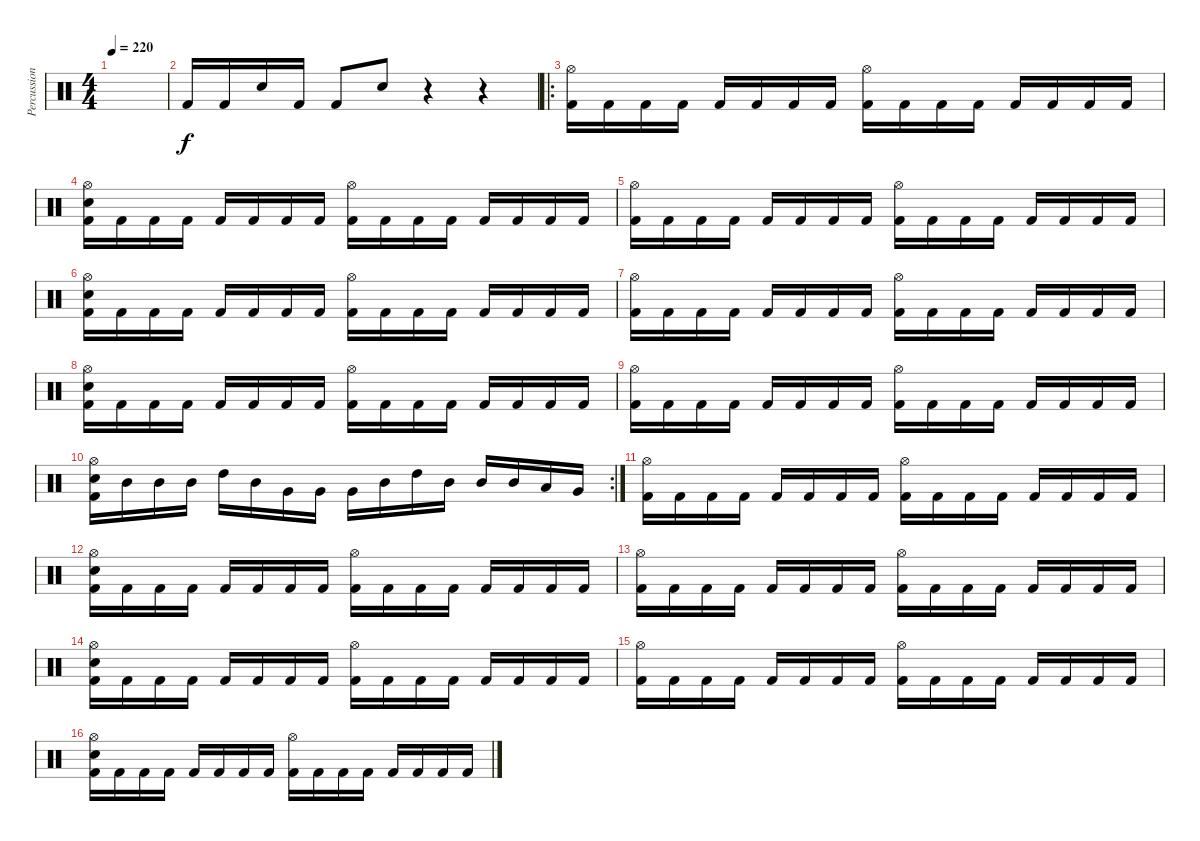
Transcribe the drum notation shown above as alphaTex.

\track ("Percussion" "Percussion") {instrument percussion}
\staff {score}
\articulation defaults
\ts (4 4)
\tempo 220
\clef neutral
\ks c
|
"Kick (hit) 2".16 "Kick (hit) 2".16 "Electric Snare (hit)".16 "Kick (hit) 2".16 "Kick (hit) 2".8 "Electric Snare (hit)".8 r.4 r.4 |
\ro
("Hi-Hat (open)" "Kick (hit) 2").16 "Kick (hit) 2".16 "Kick (hit) 2".16 "Kick (hit) 2".16 "Kick (hit) 2".16 "Kick (hit) 2".16 "Kick (hit) 2".16 "Kick (hit) 2".16 ("Hi-Hat (open)" "Kick (hit) 2").16 "Kick (hit) 2".16 "Kick (hit) 2".16 "Kick (hit) 2".16 "Kick (hit) 2".16 "Kick (hit) 2".16 "Kick (hit) 2".16 "Kick (hit) 2".16 |
("Hi-Hat (open)" "Electric Snare (hit)" "Kick (hit) 2").16 "Kick (hit) 2".16 "Kick (hit) 2".16 "Kick (hit) 2".16 "Kick (hit) 2".16 "Kick (hit) 2".16 "Kick (hit) 2".16 "Kick (hit) 2".16 ("Hi-Hat (open)" "Kick (hit) 2").16 "Kick (hit) 2".16 "Kick (hit) 2".16 "Kick (hit) 2".16 "Kick (hit) 2".16 "Kick (hit) 2".16 "Kick (hit) 2".16 "Kick (hit) 2".16 |
("Hi-Hat (open)" "Kick (hit) 2").16 "Kick (hit) 2".16 "Kick (hit) 2".16 "Kick (hit) 2".16 "Kick (hit) 2".16 "Kick (hit) 2".16 "Kick (hit) 2".16 "Kick (hit) 2".16 ("Hi-Hat (open)" "Kick (hit) 2").16 "Kick (hit) 2".16 "Kick (hit) 2".16 "Kick (hit) 2".16 "Kick (hit) 2".16 "Kick (hit) 2".16 "Kick (hit) 2".16 "Kick (hit) 2".16 |
("Hi-Hat (open)" "Electric Snare (hit)" "Kick (hit) 2").16 "Kick (hit) 2".16 "Kick (hit) 2".16 "Kick (hit) 2".16 "Kick (hit) 2".16 "Kick (hit) 2".16 "Kick (hit) 2".16 "Kick (hit) 2".16 ("Hi-Hat (open)" "Kick (hit) 2").16 "Kick (hit) 2".16 "Kick (hit) 2".16 "Kick (hit) 2".16 "Kick (hit) 2".16 "Kick (hit) 2".16 "Kick (hit) 2".16 "Kick (hit) 2".16 |
("Hi-Hat (open)" "Kick (hit) 2").16 "Kick (hit) 2".16 "Kick (hit) 2".16 "Kick (hit) 2".16 "Kick (hit) 2".16 "Kick (hit) 2".16 "Kick (hit) 2".16 "Kick (hit) 2".16 ("Hi-Hat (open)" "Kick (hit) 2").16 "Kick (hit) 2".16 "Kick (hit) 2".16 "Kick (hit) 2".16 "Kick (hit) 2".16 "Kick (hit) 2".16 "Kick (hit) 2".16 "Kick (hit) 2".16 |
("Hi-Hat (open)" "Electric Snare (hit)" "Kick (hit) 2").16 "Kick (hit) 2".16 "Kick (hit) 2".16 "Kick (hit) 2".16 "Kick (hit) 2".16 "Kick (hit) 2".16 "Kick (hit) 2".16 "Kick (hit) 2".16 ("Hi-Hat (open)" "Kick (hit) 2").16 "Kick (hit) 2".16 "Kick (hit) 2".16 "Kick (hit) 2".16 "Kick (hit) 2".16 "Kick (hit) 2".16 "Kick (hit) 2".16 "Kick (hit) 2".16 |
("Hi-Hat (open)" "Kick (hit) 2").16 "Kick (hit) 2".16 "Kick (hit) 2".16 "Kick (hit) 2".16 "Kick (hit) 2".16 "Kick (hit) 2".16 "Kick (hit) 2".16 "Kick (hit) 2".16 ("Hi-Hat (open)" "Kick (hit) 2").16 "Kick (hit) 2".16 "Kick (hit) 2".16 "Kick (hit) 2".16 "Kick (hit) 2".16 "Kick (hit) 2".16 "Kick (hit) 2".16 "Kick (hit) 2".16 |
\rc 2
("Hi-Hat (open)" "Electric Snare (hit)" "Kick (hit) 2").16 "Mid Tom (hit)".16 "Mid Tom (hit)".16 "Mid Tom (hit)".16 "High Tom (hit)".16 "Mid Tom (hit)".16 "Very Low Tom (hit)".16 "Very Low Tom (hit)".16 "Very Low Tom (hit)".16 "Mid Tom (hit)".16 "High Tom (hit)".16 "Mid Tom (hit)".16 "Mid Tom (hit)".16 "Mid Tom (hit)".16 "Low Tom (hit)".16 "Very Low Tom (hit)".16 |
("Hi-Hat (open)" "Kick (hit) 2").16 "Kick (hit) 2".16 "Kick (hit) 2".16 "Kick (hit) 2".16 "Kick (hit) 2".16 "Kick (hit) 2".16 "Kick (hit) 2".16 "Kick (hit) 2".16 ("Hi-Hat (open)" "Kick (hit) 2").16 "Kick (hit) 2".16 "Kick (hit) 2".16 "Kick (hit) 2".16 "Kick (hit) 2".16 "Kick (hit) 2".16 "Kick (hit) 2".16 "Kick (hit) 2".16 |
("Hi-Hat (open)" "Electric Snare (hit)" "Kick (hit) 2").16 "Kick (hit) 2".16 "Kick (hit) 2".16 "Kick (hit) 2".16 "Kick (hit) 2".16 "Kick (hit) 2".16 "Kick (hit) 2".16 "Kick (hit) 2".16 ("Hi-Hat (open)" "Kick (hit) 2").16 "Kick (hit) 2".16 "Kick (hit) 2".16 "Kick (hit) 2".16 "Kick (hit) 2".16 "Kick (hit) 2".16 "Kick (hit) 2".16 "Kick (hit) 2".16 |
("Hi-Hat (open)" "Kick (hit) 2").16 "Kick (hit) 2".16 "Kick (hit) 2".16 "Kick (hit) 2".16 "Kick (hit) 2".16 "Kick (hit) 2".16 "Kick (hit) 2".16 "Kick (hit) 2".16 ("Hi-Hat (open)" "Kick (hit) 2").16 "Kick (hit) 2".16 "Kick (hit) 2".16 "Kick (hit) 2".16 "Kick (hit) 2".16 "Kick (hit) 2".16 "Kick (hit) 2".16 "Kick (hit) 2".16 |
("Hi-Hat (open)" "Electric Snare (hit)" "Kick (hit) 2").16 "Kick (hit) 2".16 "Kick (hit) 2".16 "Kick (hit) 2".16 "Kick (hit) 2".16 "Kick (hit) 2".16 "Kick (hit) 2".16 "Kick (hit) 2".16 ("Hi-Hat (open)" "Kick (hit) 2").16 "Kick (hit) 2".16 "Kick (hit) 2".16 "Kick (hit) 2".16 "Kick (hit) 2".16 "Kick (hit) 2".16 "Kick (hit) 2".16 "Kick (hit) 2".16 |
("Hi-Hat (open)" "Kick (hit) 2").16 "Kick (hit) 2".16 "Kick (hit) 2".16 "Kick (hit) 2".16 "Kick (hit) 2".16 "Kick (hit) 2".16 "Kick (hit) 2".16 "Kick (hit) 2".16 ("Hi-Hat (open)" "Kick (hit) 2").16 "Kick (hit) 2".16 "Kick (hit) 2".16 "Kick (hit) 2".16 "Kick (hit) 2".16 "Kick (hit) 2".16 "Kick (hit) 2".16 "Kick (hit) 2".16 |
("Hi-Hat (open)" "Electric Snare (hit)" "Kick (hit) 2").16 "Kick (hit) 2".16 "Kick (hit) 2".16 "Kick (hit) 2".16 "Kick (hit) 2".16 "Kick (hit) 2".16 "Kick (hit) 2".16 "Kick (hit) 2".16 ("Hi-Hat (open)" "Kick (hit) 2").16 "Kick (hit) 2".16 "Kick (hit) 2".16 "Kick (hit) 2".16 "Kick (hit) 2".16 "Kick (hit) 2".16 "Kick (hit) 2".16 "Kick (hit) 2".16
